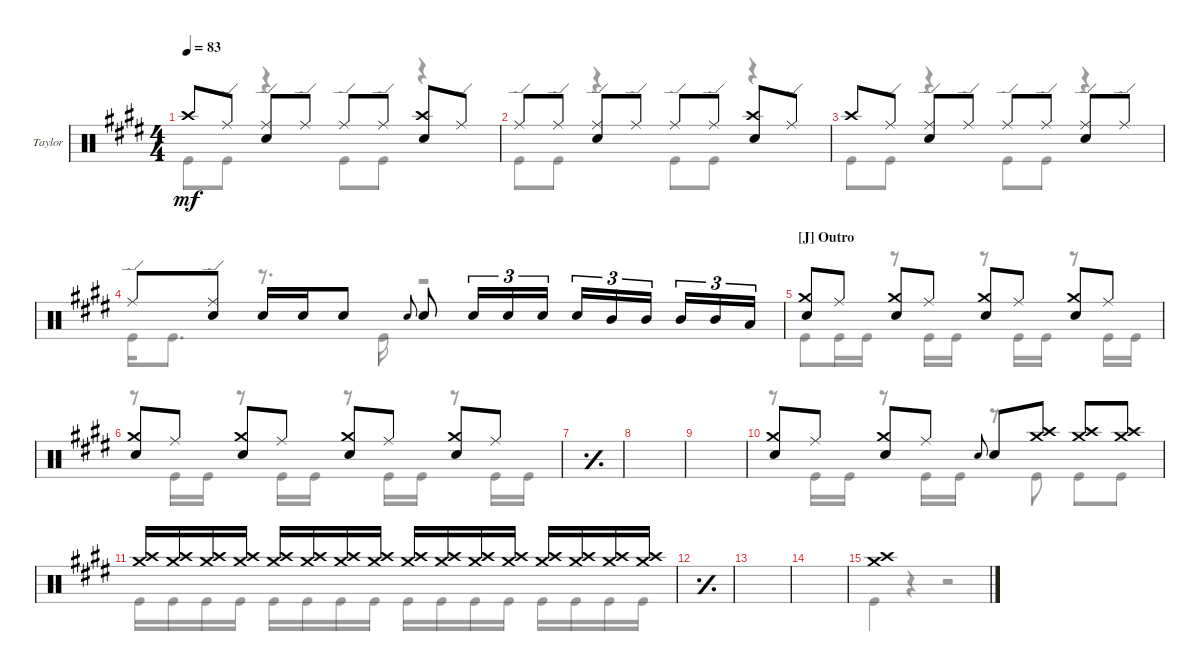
\defaultSystemsLayout 4
\bracketExtendMode groupsimilarinstruments
\firstSystemTrackNameOrientation horizontal
\otherSystemsTrackNameOrientation horizontal
\track ("Drums - Taylor Hawkins" "Taylor") {instrument percussion}
\staff {score}
\articulation defaults
\voice
\ts (4 4)
\tempo 83
\clef neutral
\ks e "Crash high (hit)".8{dy mf} "Ride (edge)".8
("Ride (edge)" "Snare (hit) 2").8 "Ride (edge)".8 "Ride (edge)".8 "Ride (edge)".8 ("Snare (hit) 2" "Crash high (hit)").8 "Ride (edge)".8 |
"Ride (edge)".8 "Ride (edge)".8 ("Ride (edge)" "Snare (hit) 2").8 "Ride (edge)".8 "Ride (edge)".8 "Ride (edge)".8 ("Snare (hit) 2" "Crash high (hit)").8 "Ride (edge)".8 |
"Crash high (hit)".8 "Ride (edge)".8 ("Ride (edge)" "Snare (hit) 2").8 "Ride (edge)".8 "Ride (edge)".8 "Ride (edge)".8 ("Snare (hit) 2" "Ride (edge)").8 "Ride (edge)".8 |
"Ride (edge)".8 ("Snare (hit) 2" "Ride (edge)").8 "Snare (hit) 2".16 "Snare (hit) 2".16 "Snare (hit) 2".8 "Snare (hit) 2".8{gr onbeat} "Snare (hit) 2".8 "Snare (hit) 2".16{tu (3 2)} "Snare (hit) 2".16{tu (3 2)} "Snare (hit) 2".16{tu (3 2)} "Snare (hit) 2".16{tu (3 2)} "Mid Tom (hit)".16{tu (3 2)} "Mid Tom (hit)".16{tu (3 2)} "Mid Tom (hit)".16{tu (3 2)} "Mid Tom (hit)".16{tu (3 2)} "Low Tom (hit)".16{tu (3 2)} |
\section ("J" "Outro")
("Snare (hit) 2" "Crash medium (hit)").8 "Ride (middle)".8 ("Snare (hit) 2" "Crash medium (hit)").8 "Ride (middle)".8 ("Snare (hit) 2" "Crash medium (hit)").8 "Ride (middle)".8 ("Snare (hit) 2" "Crash medium (hit)").8 "Ride (middle)".8 |
("Snare (hit) 2" "Crash medium (hit)").8 "Ride (middle)".8 ("Snare (hit) 2" "Crash medium (hit)").8 "Ride (middle)".8 ("Snare (hit) 2" "Crash medium (hit)").8 "Ride (middle)".8 ("Snare (hit) 2" "Crash medium (hit)").8 "Ride (middle)".8 |
\simile simple
|
|
|
\simile none
("Snare (hit) 2" "Crash medium (hit)").8 "Ride (middle)".8 ("Snare (hit) 2" "Crash medium (hit)").8 "Ride (middle)".8 "Snare (hit) 2".8{gr onbeat} "Snare (hit) 2".8 ("Crash high (hit)" "Crash medium (hit)").8 ("Crash high (hit)" "Crash medium (hit)").8 ("Crash high (hit)" "Crash medium (hit)").8 |
("Crash high (hit)" "Crash medium (hit)").16 ("Crash high (hit)" "Crash medium (hit)").16 ("Crash high (hit)" "Crash medium (hit)").16 ("Crash high (hit)" "Crash medium (hit)").16 ("Crash high (hit)" "Crash medium (hit)").16 ("Crash high (hit)" "Crash medium (hit)").16 ("Crash high (hit)" "Crash medium (hit)").16 ("Crash high (hit)" "Crash medium (hit)").16 ("Crash high (hit)" "Crash medium (hit)").16 ("Crash high (hit)" "Crash medium (hit)").16 ("Crash high (hit)" "Crash medium (hit)").16 ("Crash high (hit)" "Crash medium (hit)").16 ("Crash high (hit)" "Crash medium (hit)").16 ("Crash high (hit)" "Crash medium (hit)").16 ("Crash high (hit)" "Crash medium (hit)").16 ("Crash high (hit)" "Crash medium (hit)").16 |
\simile simple
|
|
|
\simile none
("Crash medium (hit)" "Crash high (hit)").1
\voice
\clef neutral
\ottava regular
\simile none
\ks e "Kick (hit)".8{dy mf} "Kick (hit)".8
r.4 "Kick (hit)".8 "Kick (hit)".8 r.4 |
"Kick (hit)".8 "Kick (hit)".8 r.4 "Kick (hit)".8 "Kick (hit)".8 r.4 |
"Kick (hit)".8 "Kick (hit)".8 r.4 "Kick (hit)".8 "Kick (hit)".8 r.4 |
"Kick (hit)".16 "Kick (hit)".8{d} r.8{d} "Kick (hit)".16 r.2 |
"Kick (hit)".8 "Kick (hit)".16 "Kick (hit)".16 r.8 "Kick (hit)".16 "Kick (hit)".16 r.8 "Kick (hit)".16 "Kick (hit)".16 r.8 "Kick (hit)".16 "Kick (hit)".16 |
r.8 "Kick (hit)".16 "Kick (hit)".16 r.8 "Kick (hit)".16 "Kick (hit)".16 r.8 "Kick (hit)".16 "Kick (hit)".16 r.8 "Kick (hit)".16 "Kick (hit)".16 |
\simile simple
|
|
|
\simile none
r.8 "Kick (hit)".16 "Kick (hit)".16 r.8 "Kick (hit)".16 "Kick (hit)".16 r.8 "Kick (hit)".8 "Kick (hit)".8 "Kick (hit)".8 |
"Kick (hit)".16 "Kick (hit)".16 "Kick (hit)".16 "Kick (hit)".16 "Kick (hit)".16 "Kick (hit)".16 "Kick (hit)".16 "Kick (hit)".16 "Kick (hit)".16 "Kick (hit)".16 "Kick (hit)".16 "Kick (hit)".16 "Kick (hit)".16 "Kick (hit)".16 "Kick (hit)".16 "Kick (hit)".16 |
\simile simple
|
|
|
\simile none "Kick (hit)".4
r.4 r.2
